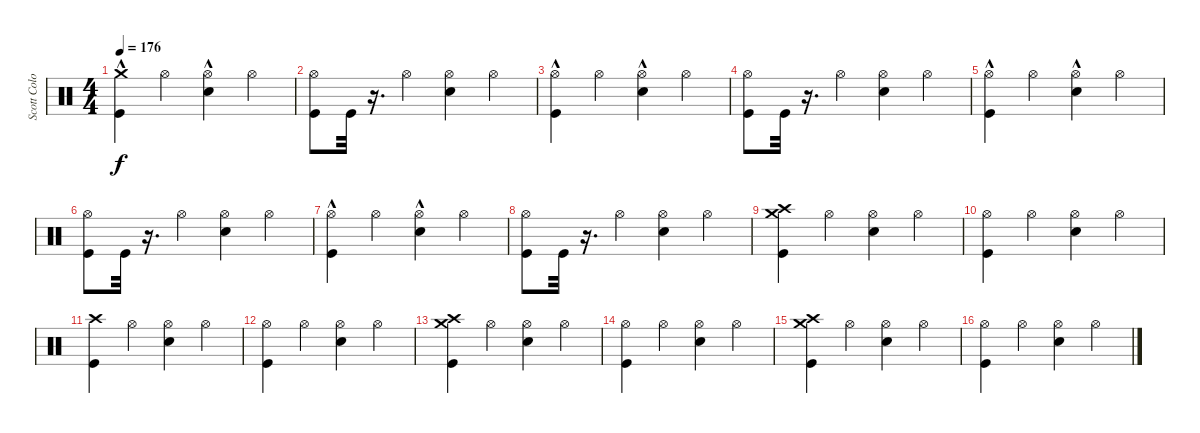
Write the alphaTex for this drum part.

\track ("Scott Colombus" "Scott Colo") {instrument percussion}
\staff {score}
\articulation defaults
\ts (4 4)
\tempo 176
\clef neutral
\ks c
("Crash medium (hit)" "Kick (hit)"{hac}).4{dy f} "Hi-Hat (open)".4 ("Hi-Hat (open)" "Snare (hit) 2"{hac}).4 "Hi-Hat (open)".4 |
("Hi-Hat (open)" "Kick (hit)").8 "Kick (hit)".32 r.16{d} "Hi-Hat (open)".4 ("Hi-Hat (open)" "Snare (hit) 2").4 "Hi-Hat (open)".4 |
("Hi-Hat (open)" "Kick (hit)"{hac}).4 "Hi-Hat (open)".4 ("Hi-Hat (open)" "Snare (hit) 2"{hac}).4 "Hi-Hat (open)".4 |
("Hi-Hat (open)" "Kick (hit)").8 "Kick (hit)".32 r.16{d} "Hi-Hat (open)".4 ("Hi-Hat (open)" "Snare (hit) 2").4 "Hi-Hat (open)".4 |
("Hi-Hat (open)" "Kick (hit)"{hac}).4 "Hi-Hat (open)".4 ("Hi-Hat (open)" "Snare (hit) 2"{hac}).4 "Hi-Hat (open)".4 |
("Hi-Hat (open)" "Kick (hit)").8 "Kick (hit)".32 r.16{d} "Hi-Hat (open)".4 ("Hi-Hat (open)" "Snare (hit) 2").4 "Hi-Hat (open)".4 |
("Hi-Hat (open)" "Kick (hit)"{hac}).4 "Hi-Hat (open)".4 ("Hi-Hat (open)" "Snare (hit) 2"{hac}).4 "Hi-Hat (open)".4 |
("Hi-Hat (open)" "Kick (hit)").8 "Kick (hit)".32 r.16{d} "Hi-Hat (open)".4 ("Hi-Hat (open)" "Snare (hit) 2").4 "Hi-Hat (open)".4 |
("Crash medium (hit)" "Crash high (hit)" "Kick (hit)").4 "Hi-Hat (open)".4 ("Hi-Hat (open)" "Snare (hit) 2").4 "Hi-Hat (open)".4 |
("Hi-Hat (open)" "Kick (hit)").4 "Hi-Hat (open)".4 ("Hi-Hat (open)" "Snare (hit) 2").4 "Hi-Hat (open)".4 |
("Crash high (hit)" "Kick (hit)").4 "Hi-Hat (open)".4 ("Hi-Hat (open)" "Snare (hit) 2").4 "Hi-Hat (open)".4 |
("Hi-Hat (open)" "Kick (hit)").4 "Hi-Hat (open)".4 ("Hi-Hat (open)" "Snare (hit) 2").4 "Hi-Hat (open)".4 |
("Crash medium (hit)" "Crash high (hit)" "Kick (hit)").4 "Hi-Hat (open)".4 ("Hi-Hat (open)" "Snare (hit) 2").4 "Hi-Hat (open)".4 |
("Hi-Hat (open)" "Kick (hit)").4 "Hi-Hat (open)".4 ("Hi-Hat (open)" "Snare (hit) 2").4 "Hi-Hat (open)".4 |
("Crash medium (hit)" "Crash high (hit)" "Kick (hit)").4 "Hi-Hat (open)".4 ("Hi-Hat (open)" "Snare (hit) 2").4 "Hi-Hat (open)".4 |
("Hi-Hat (open)" "Kick (hit)").4 "Hi-Hat (open)".4 ("Hi-Hat (open)" "Snare (hit) 2").4 "Hi-Hat (open)".4
